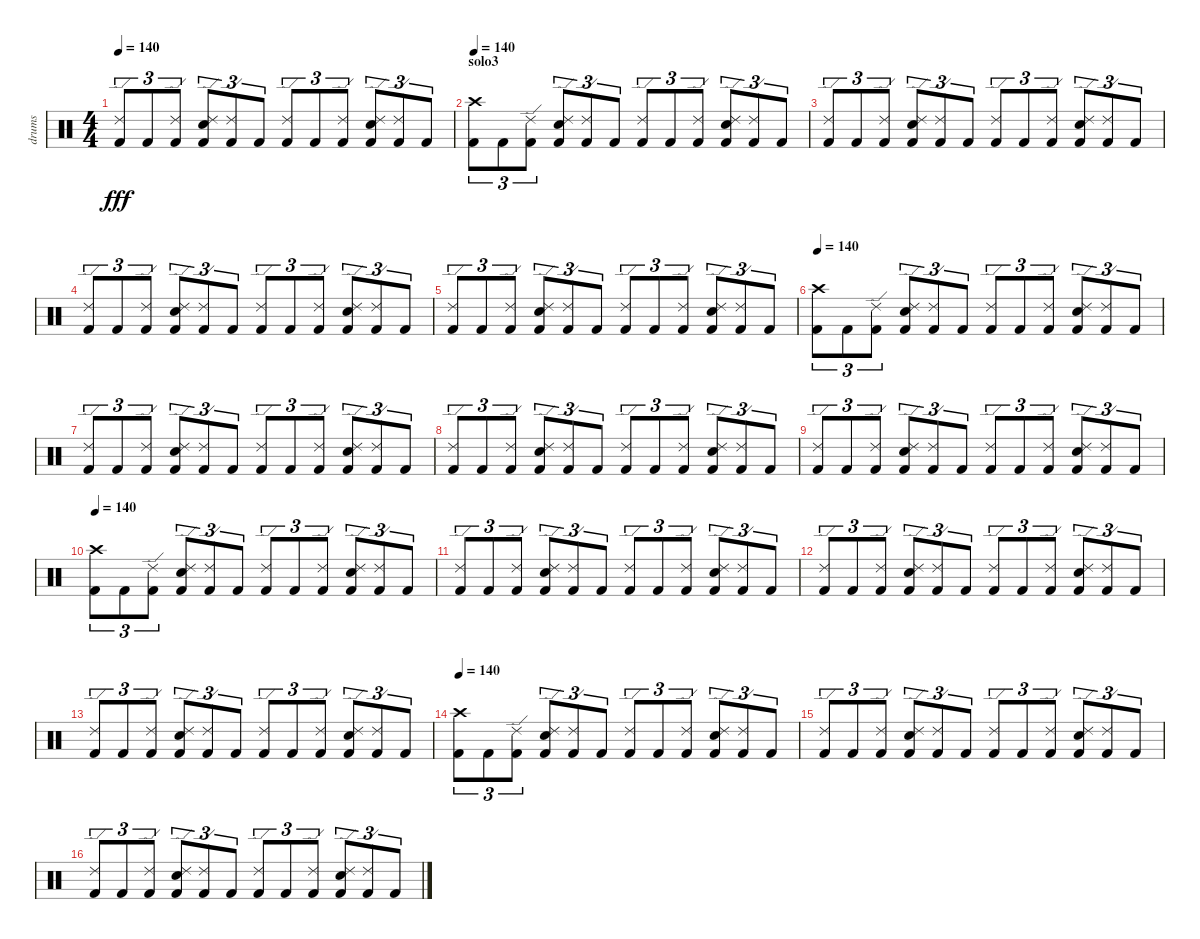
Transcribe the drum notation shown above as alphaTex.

\track ("drums" "drums") {instrument percussion}
\staff {score}
\articulation defaults
\ts (4 4)
\tempo 140
\clef neutral
\ks c
("Ride (edge) 2" "Kick (hit) 2").8{tu (3 2) dy fff} "Kick (hit) 2".8{tu (3 2)} ("Ride (edge) 2" "Kick (hit) 2").8{tu (3 2)} ("Ride (edge) 2" "Snare (hit) 2" "Kick (hit) 2").8{tu (3 2)} ("Ride (edge) 2" "Kick (hit) 2").8{tu (3 2)} "Kick (hit) 2".8{tu (3 2)} ("Ride (edge) 2" "Kick (hit) 2").8{tu (3 2)} "Kick (hit) 2".8{tu (3 2)} ("Ride (edge) 2" "Kick (hit) 2").8{tu (3 2)} ("Ride (edge) 2" "Snare (hit) 2" "Kick (hit) 2").8{tu (3 2)} ("Ride (edge) 2" "Kick (hit) 2").8{tu (3 2)} "Kick (hit) 2".8{tu (3 2)} |
\section ("" "solo3")
\tempo 140
("Crash high (hit)" "Kick (hit) 2").8{tu (3 2)} "Kick (hit) 2".8{tu (3 2)} ("Ride (edge) 2" "Kick (hit) 2").8{tu (3 2)} ("Ride (edge) 2" "Snare (hit) 2" "Kick (hit) 2").8{tu (3 2)} ("Ride (edge) 2" "Kick (hit) 2").8{tu (3 2)} "Kick (hit) 2".8{tu (3 2)} ("Ride (edge) 2" "Kick (hit) 2").8{tu (3 2)} "Kick (hit) 2".8{tu (3 2)} ("Ride (edge) 2" "Kick (hit) 2").8{tu (3 2)} ("Ride (edge) 2" "Snare (hit) 2" "Kick (hit) 2").8{tu (3 2)} ("Ride (edge) 2" "Kick (hit) 2").8{tu (3 2)} "Kick (hit) 2".8{tu (3 2)} |
("Ride (edge) 2" "Kick (hit) 2").8{tu (3 2)} "Kick (hit) 2".8{tu (3 2)} ("Ride (edge) 2" "Kick (hit) 2").8{tu (3 2)} ("Ride (edge) 2" "Snare (hit) 2" "Kick (hit) 2").8{tu (3 2)} ("Ride (edge) 2" "Kick (hit) 2").8{tu (3 2)} "Kick (hit) 2".8{tu (3 2)} ("Ride (edge) 2" "Kick (hit) 2").8{tu (3 2)} "Kick (hit) 2".8{tu (3 2)} ("Ride (edge) 2" "Kick (hit) 2").8{tu (3 2)} ("Ride (edge) 2" "Snare (hit) 2" "Kick (hit) 2").8{tu (3 2)} ("Ride (edge) 2" "Kick (hit) 2").8{tu (3 2)} "Kick (hit) 2".8{tu (3 2)} |
("Ride (edge) 2" "Kick (hit) 2").8{tu (3 2)} "Kick (hit) 2".8{tu (3 2)} ("Ride (edge) 2" "Kick (hit) 2").8{tu (3 2)} ("Ride (edge) 2" "Snare (hit) 2" "Kick (hit) 2").8{tu (3 2)} ("Ride (edge) 2" "Kick (hit) 2").8{tu (3 2)} "Kick (hit) 2".8{tu (3 2)} ("Ride (edge) 2" "Kick (hit) 2").8{tu (3 2)} "Kick (hit) 2".8{tu (3 2)} ("Ride (edge) 2" "Kick (hit) 2").8{tu (3 2)} ("Ride (edge) 2" "Snare (hit) 2" "Kick (hit) 2").8{tu (3 2)} ("Ride (edge) 2" "Kick (hit) 2").8{tu (3 2)} "Kick (hit) 2".8{tu (3 2)} |
("Ride (edge) 2" "Kick (hit) 2").8{tu (3 2)} "Kick (hit) 2".8{tu (3 2)} ("Ride (edge) 2" "Kick (hit) 2").8{tu (3 2)} ("Ride (edge) 2" "Snare (hit) 2" "Kick (hit) 2").8{tu (3 2)} ("Ride (edge) 2" "Kick (hit) 2").8{tu (3 2)} "Kick (hit) 2".8{tu (3 2)} ("Ride (edge) 2" "Kick (hit) 2").8{tu (3 2)} "Kick (hit) 2".8{tu (3 2)} ("Ride (edge) 2" "Kick (hit) 2").8{tu (3 2)} ("Ride (edge) 2" "Snare (hit) 2" "Kick (hit) 2").8{tu (3 2)} ("Ride (edge) 2" "Kick (hit) 2").8{tu (3 2)} "Kick (hit) 2".8{tu (3 2)} |
\tempo 140
("Crash high (hit)" "Kick (hit) 2").8{tu (3 2)} "Kick (hit) 2".8{tu (3 2)} ("Ride (edge) 2" "Kick (hit) 2").8{tu (3 2)} ("Ride (edge) 2" "Snare (hit) 2" "Kick (hit) 2").8{tu (3 2)} ("Ride (edge) 2" "Kick (hit) 2").8{tu (3 2)} "Kick (hit) 2".8{tu (3 2)} ("Ride (edge) 2" "Kick (hit) 2").8{tu (3 2)} "Kick (hit) 2".8{tu (3 2)} ("Ride (edge) 2" "Kick (hit) 2").8{tu (3 2)} ("Ride (edge) 2" "Snare (hit) 2" "Kick (hit) 2").8{tu (3 2)} ("Ride (edge) 2" "Kick (hit) 2").8{tu (3 2)} "Kick (hit) 2".8{tu (3 2)} |
("Ride (edge) 2" "Kick (hit) 2").8{tu (3 2)} "Kick (hit) 2".8{tu (3 2)} ("Ride (edge) 2" "Kick (hit) 2").8{tu (3 2)} ("Ride (edge) 2" "Snare (hit) 2" "Kick (hit) 2").8{tu (3 2)} ("Ride (edge) 2" "Kick (hit) 2").8{tu (3 2)} "Kick (hit) 2".8{tu (3 2)} ("Ride (edge) 2" "Kick (hit) 2").8{tu (3 2)} "Kick (hit) 2".8{tu (3 2)} ("Ride (edge) 2" "Kick (hit) 2").8{tu (3 2)} ("Ride (edge) 2" "Snare (hit) 2" "Kick (hit) 2").8{tu (3 2)} ("Ride (edge) 2" "Kick (hit) 2").8{tu (3 2)} "Kick (hit) 2".8{tu (3 2)} |
("Ride (edge) 2" "Kick (hit) 2").8{tu (3 2)} "Kick (hit) 2".8{tu (3 2)} ("Ride (edge) 2" "Kick (hit) 2").8{tu (3 2)} ("Ride (edge) 2" "Snare (hit) 2" "Kick (hit) 2").8{tu (3 2)} ("Ride (edge) 2" "Kick (hit) 2").8{tu (3 2)} "Kick (hit) 2".8{tu (3 2)} ("Ride (edge) 2" "Kick (hit) 2").8{tu (3 2)} "Kick (hit) 2".8{tu (3 2)} ("Ride (edge) 2" "Kick (hit) 2").8{tu (3 2)} ("Ride (edge) 2" "Snare (hit) 2" "Kick (hit) 2").8{tu (3 2)} ("Ride (edge) 2" "Kick (hit) 2").8{tu (3 2)} "Kick (hit) 2".8{tu (3 2)} |
("Ride (edge) 2" "Kick (hit) 2").8{tu (3 2)} "Kick (hit) 2".8{tu (3 2)} ("Ride (edge) 2" "Kick (hit) 2").8{tu (3 2)} ("Ride (edge) 2" "Snare (hit) 2" "Kick (hit) 2").8{tu (3 2)} ("Ride (edge) 2" "Kick (hit) 2").8{tu (3 2)} "Kick (hit) 2".8{tu (3 2)} ("Ride (edge) 2" "Kick (hit) 2").8{tu (3 2)} "Kick (hit) 2".8{tu (3 2)} ("Ride (edge) 2" "Kick (hit) 2").8{tu (3 2)} ("Ride (edge) 2" "Snare (hit) 2" "Kick (hit) 2").8{tu (3 2)} ("Ride (edge) 2" "Kick (hit) 2").8{tu (3 2)} "Kick (hit) 2".8{tu (3 2)} |
\tempo 140
("Crash high (hit)" "Kick (hit) 2").8{tu (3 2)} "Kick (hit) 2".8{tu (3 2)} ("Ride (edge) 2" "Kick (hit) 2").8{tu (3 2)} ("Ride (edge) 2" "Snare (hit) 2" "Kick (hit) 2").8{tu (3 2)} ("Ride (edge) 2" "Kick (hit) 2").8{tu (3 2)} "Kick (hit) 2".8{tu (3 2)} ("Ride (edge) 2" "Kick (hit) 2").8{tu (3 2)} "Kick (hit) 2".8{tu (3 2)} ("Ride (edge) 2" "Kick (hit) 2").8{tu (3 2)} ("Ride (edge) 2" "Snare (hit) 2" "Kick (hit) 2").8{tu (3 2)} ("Ride (edge) 2" "Kick (hit) 2").8{tu (3 2)} "Kick (hit) 2".8{tu (3 2)} |
("Ride (edge) 2" "Kick (hit) 2").8{tu (3 2)} "Kick (hit) 2".8{tu (3 2)} ("Ride (edge) 2" "Kick (hit) 2").8{tu (3 2)} ("Ride (edge) 2" "Snare (hit) 2" "Kick (hit) 2").8{tu (3 2)} ("Ride (edge) 2" "Kick (hit) 2").8{tu (3 2)} "Kick (hit) 2".8{tu (3 2)} ("Ride (edge) 2" "Kick (hit) 2").8{tu (3 2)} "Kick (hit) 2".8{tu (3 2)} ("Ride (edge) 2" "Kick (hit) 2").8{tu (3 2)} ("Ride (edge) 2" "Snare (hit) 2" "Kick (hit) 2").8{tu (3 2)} ("Ride (edge) 2" "Kick (hit) 2").8{tu (3 2)} "Kick (hit) 2".8{tu (3 2)} |
("Ride (edge) 2" "Kick (hit) 2").8{tu (3 2)} "Kick (hit) 2".8{tu (3 2)} ("Ride (edge) 2" "Kick (hit) 2").8{tu (3 2)} ("Ride (edge) 2" "Snare (hit) 2" "Kick (hit) 2").8{tu (3 2)} ("Ride (edge) 2" "Kick (hit) 2").8{tu (3 2)} "Kick (hit) 2".8{tu (3 2)} ("Ride (edge) 2" "Kick (hit) 2").8{tu (3 2)} "Kick (hit) 2".8{tu (3 2)} ("Ride (edge) 2" "Kick (hit) 2").8{tu (3 2)} ("Ride (edge) 2" "Snare (hit) 2" "Kick (hit) 2").8{tu (3 2)} ("Ride (edge) 2" "Kick (hit) 2").8{tu (3 2)} "Kick (hit) 2".8{tu (3 2)} |
("Ride (edge) 2" "Kick (hit) 2").8{tu (3 2)} "Kick (hit) 2".8{tu (3 2)} ("Ride (edge) 2" "Kick (hit) 2").8{tu (3 2)} ("Ride (edge) 2" "Snare (hit) 2" "Kick (hit) 2").8{tu (3 2)} ("Ride (edge) 2" "Kick (hit) 2").8{tu (3 2)} "Kick (hit) 2".8{tu (3 2)} ("Ride (edge) 2" "Kick (hit) 2").8{tu (3 2)} "Kick (hit) 2".8{tu (3 2)} ("Ride (edge) 2" "Kick (hit) 2").8{tu (3 2)} ("Ride (edge) 2" "Snare (hit) 2" "Kick (hit) 2").8{tu (3 2)} ("Ride (edge) 2" "Kick (hit) 2").8{tu (3 2)} "Kick (hit) 2".8{tu (3 2)} |
\tempo 140
("Crash high (hit)" "Kick (hit) 2").8{tu (3 2)} "Kick (hit) 2".8{tu (3 2)} ("Ride (edge) 2" "Kick (hit) 2").8{tu (3 2)} ("Ride (edge) 2" "Snare (hit) 2" "Kick (hit) 2").8{tu (3 2)} ("Ride (edge) 2" "Kick (hit) 2").8{tu (3 2)} "Kick (hit) 2".8{tu (3 2)} ("Ride (edge) 2" "Kick (hit) 2").8{tu (3 2)} "Kick (hit) 2".8{tu (3 2)} ("Ride (edge) 2" "Kick (hit) 2").8{tu (3 2)} ("Ride (edge) 2" "Snare (hit) 2" "Kick (hit) 2").8{tu (3 2)} ("Ride (edge) 2" "Kick (hit) 2").8{tu (3 2)} "Kick (hit) 2".8{tu (3 2)} |
("Ride (edge) 2" "Kick (hit) 2").8{tu (3 2)} "Kick (hit) 2".8{tu (3 2)} ("Ride (edge) 2" "Kick (hit) 2").8{tu (3 2)} ("Ride (edge) 2" "Snare (hit) 2" "Kick (hit) 2").8{tu (3 2)} ("Ride (edge) 2" "Kick (hit) 2").8{tu (3 2)} "Kick (hit) 2".8{tu (3 2)} ("Ride (edge) 2" "Kick (hit) 2").8{tu (3 2)} "Kick (hit) 2".8{tu (3 2)} ("Ride (edge) 2" "Kick (hit) 2").8{tu (3 2)} ("Ride (edge) 2" "Snare (hit) 2" "Kick (hit) 2").8{tu (3 2)} ("Ride (edge) 2" "Kick (hit) 2").8{tu (3 2)} "Kick (hit) 2".8{tu (3 2)} |
("Ride (edge) 2" "Kick (hit) 2").8{tu (3 2)} "Kick (hit) 2".8{tu (3 2)} ("Ride (edge) 2" "Kick (hit) 2").8{tu (3 2)} ("Ride (edge) 2" "Snare (hit) 2" "Kick (hit) 2").8{tu (3 2)} ("Ride (edge) 2" "Kick (hit) 2").8{tu (3 2)} "Kick (hit) 2".8{tu (3 2)} ("Ride (edge) 2" "Kick (hit) 2").8{tu (3 2)} "Kick (hit) 2".8{tu (3 2)} ("Ride (edge) 2" "Kick (hit) 2").8{tu (3 2)} ("Ride (edge) 2" "Snare (hit) 2" "Kick (hit) 2").8{tu (3 2)} ("Ride (edge) 2" "Kick (hit) 2").8{tu (3 2)} "Kick (hit) 2".8{tu (3 2)}
